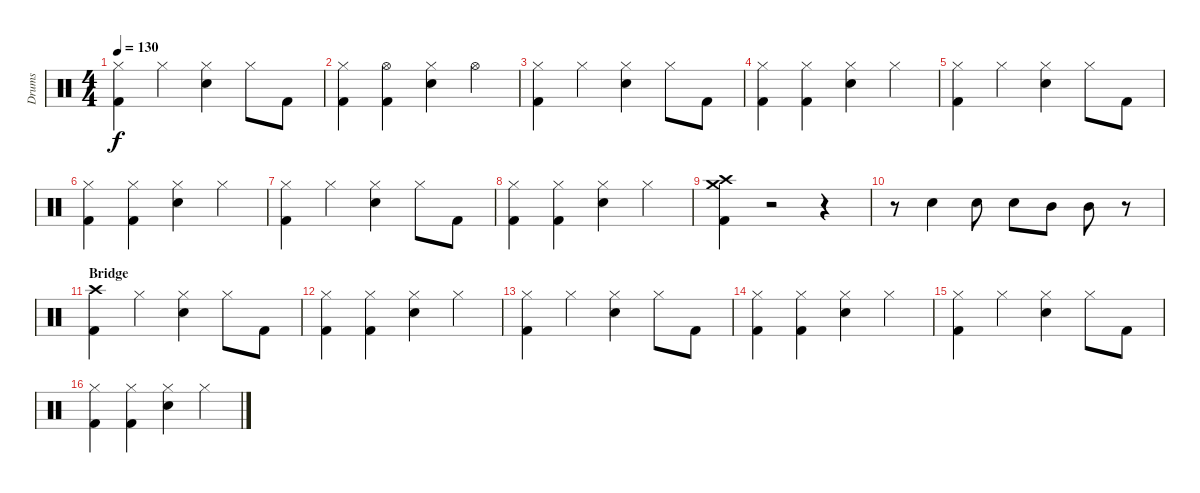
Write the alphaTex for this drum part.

\track ("Drums" "Drums") {instrument percussion}
\staff {score}
\articulation defaults
\ts (4 4)
\tempo 130
\clef neutral
\ks c
("Hi-Hat (closed)" "Kick (hit) 2").4{dy f} "Hi-Hat (closed)".4 ("Hi-Hat (closed)" "Snare (hit) 2").4 "Hi-Hat (closed)".8 "Kick (hit) 2".8 |
("Hi-Hat (closed)" "Kick (hit) 2").4 ("Hi-Hat (open)" "Kick (hit) 2").4 ("Hi-Hat (closed)" "Snare (hit) 2").4 "Hi-Hat (open)".4 |
("Hi-Hat (closed)" "Kick (hit) 2").4 "Hi-Hat (closed)".4 ("Hi-Hat (closed)" "Snare (hit) 2").4 "Hi-Hat (closed)".8 "Kick (hit) 2".8 |
("Hi-Hat (closed)" "Kick (hit) 2").4 ("Hi-Hat (closed)" "Kick (hit) 2").4 ("Hi-Hat (closed)" "Snare (hit) 2").4 "Hi-Hat (closed)".4 |
("Hi-Hat (closed)" "Kick (hit) 2").4 "Hi-Hat (closed)".4 ("Hi-Hat (closed)" "Snare (hit) 2").4 "Hi-Hat (closed)".8 "Kick (hit) 2".8 |
("Hi-Hat (closed)" "Kick (hit) 2").4 ("Hi-Hat (closed)" "Kick (hit) 2").4 ("Hi-Hat (closed)" "Snare (hit) 2").4 "Hi-Hat (closed)".4 |
("Hi-Hat (closed)" "Kick (hit) 2").4 "Hi-Hat (closed)".4 ("Hi-Hat (closed)" "Snare (hit) 2").4 "Hi-Hat (closed)".8 "Kick (hit) 2".8 |
("Hi-Hat (closed)" "Kick (hit) 2").4 ("Hi-Hat (closed)" "Kick (hit) 2").4 ("Hi-Hat (closed)" "Snare (hit) 2").4 "Hi-Hat (closed)".4 |
("Crash medium (hit)" "Crash high (hit)" "Kick (hit) 2").4 r.2 r.4 |
r.8 "Snare (hit) 2".4 "Snare (hit) 2".8 "Snare (hit) 2".8 "Mid Tom (hit)".8 "Mid Tom (hit)".8 r.8 |
\section ("" "Bridge")
("Crash high (hit)" "Kick (hit) 2").4 "Hi-Hat (closed)".4 ("Hi-Hat (closed)" "Snare (hit) 2").4 "Hi-Hat (closed)".8 "Kick (hit) 2".8 |
("Hi-Hat (closed)" "Kick (hit) 2").4 ("Hi-Hat (closed)" "Kick (hit) 2").4 ("Hi-Hat (closed)" "Snare (hit) 2").4 "Hi-Hat (closed)".4 |
("Hi-Hat (closed)" "Kick (hit) 2").4 "Hi-Hat (closed)".4 ("Hi-Hat (closed)" "Snare (hit) 2").4 "Hi-Hat (closed)".8 "Kick (hit) 2".8 |
("Hi-Hat (closed)" "Kick (hit) 2").4 ("Hi-Hat (closed)" "Kick (hit) 2").4 ("Hi-Hat (closed)" "Snare (hit) 2").4 "Hi-Hat (closed)".4 |
("Hi-Hat (closed)" "Kick (hit) 2").4 "Hi-Hat (closed)".4 ("Hi-Hat (closed)" "Snare (hit) 2").4 "Hi-Hat (closed)".8 "Kick (hit) 2".8 |
("Hi-Hat (closed)" "Kick (hit) 2").4 ("Hi-Hat (closed)" "Kick (hit) 2").4 ("Hi-Hat (closed)" "Snare (hit) 2").4 "Hi-Hat (closed)".4
